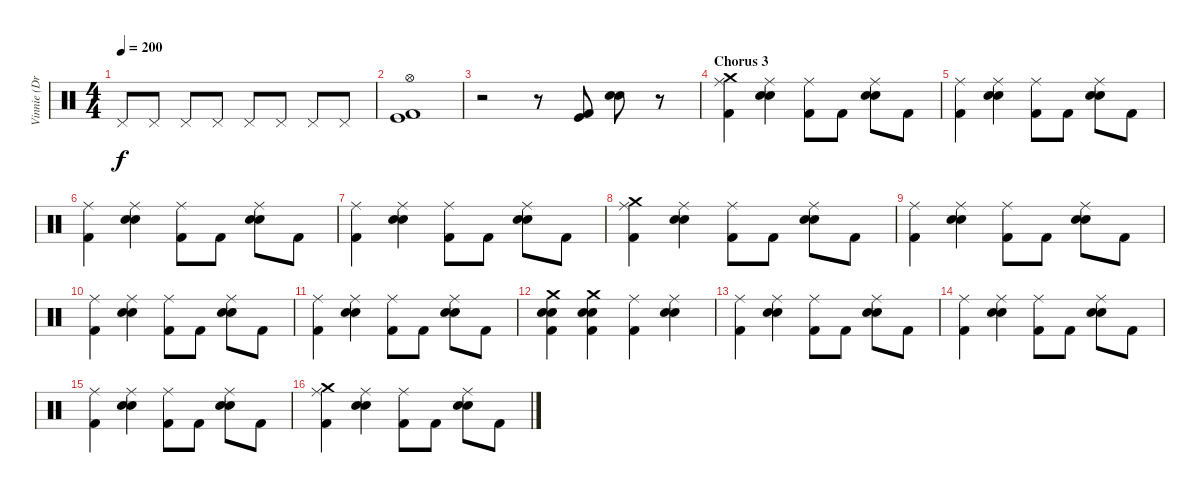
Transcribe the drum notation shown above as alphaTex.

\track ("Vinnie (Drums)" "Vinnie (Dr") {instrument percussion}
\staff {score}
\articulation defaults
\ts (4 4)
\tempo 200
\clef neutral
\ks c "Pedal Hi-Hat (hit)".8{dy f} "Pedal Hi-Hat (hit)".8 "Pedal Hi-Hat (hit)".8 "Pedal Hi-Hat (hit)".8 "Pedal Hi-Hat (hit)".8 "Pedal Hi-Hat (hit)".8 "Pedal Hi-Hat (hit)".8 "Pedal Hi-Hat (hit)".8
|
("Hi-Hat (open)" "Kick (hit) 2" "Kick (hit)").1 |
r.2 r.8 ("Kick (hit) 2" "Kick (hit)").8 ("Electric Snare (hit)" "Snare (hit) 2").8 r.8 |
\section ("" "Chorus 3")
("Kick (hit) 2" "Ride (middle)" "Crash medium (hit)").4 ("Snare (hit) 2" "Electric Snare (hit)" "Ride (middle)").4 ("Kick (hit) 2" "Ride (middle)").8 "Kick (hit) 2".8 ("Snare (hit) 2" "Electric Snare (hit)" "Ride (middle)").8 "Kick (hit) 2".8 |
("Kick (hit) 2" "Ride (middle)").4 ("Snare (hit) 2" "Electric Snare (hit)" "Ride (middle)").4 ("Kick (hit) 2" "Ride (middle)").8 "Kick (hit) 2".8 ("Snare (hit) 2" "Electric Snare (hit)" "Ride (middle)").8 "Kick (hit) 2".8 |
("Kick (hit) 2" "Ride (middle)").4 ("Snare (hit) 2" "Electric Snare (hit)" "Ride (middle)").4 ("Kick (hit) 2" "Ride (middle)").8 "Kick (hit) 2".8 ("Snare (hit) 2" "Electric Snare (hit)" "Ride (middle)").8 "Kick (hit) 2".8 |
("Kick (hit) 2" "Ride (middle)").4 ("Snare (hit) 2" "Electric Snare (hit)" "Ride (middle)").4 ("Kick (hit) 2" "Ride (middle)").8 "Kick (hit) 2".8 ("Snare (hit) 2" "Electric Snare (hit)" "Ride (middle)").8 "Kick (hit) 2".8 |
("Kick (hit) 2" "Ride (middle)" "Crash medium (hit)").4 ("Snare (hit) 2" "Electric Snare (hit)" "Ride (middle)").4 ("Kick (hit) 2" "Ride (middle)").8 "Kick (hit) 2".8 ("Snare (hit) 2" "Electric Snare (hit)" "Ride (middle)").8 "Kick (hit) 2".8 |
("Kick (hit) 2" "Ride (middle)").4 ("Snare (hit) 2" "Electric Snare (hit)" "Ride (middle)").4 ("Kick (hit) 2" "Ride (middle)").8 "Kick (hit) 2".8 ("Snare (hit) 2" "Electric Snare (hit)" "Ride (middle)").8 "Kick (hit) 2".8 |
("Kick (hit) 2" "Ride (middle)").4 ("Snare (hit) 2" "Electric Snare (hit)" "Ride (middle)").4 ("Kick (hit) 2" "Ride (middle)").8 "Kick (hit) 2".8 ("Snare (hit) 2" "Electric Snare (hit)" "Ride (middle)").8 "Kick (hit) 2".8 |
("Kick (hit) 2" "Ride (middle)").4 ("Snare (hit) 2" "Electric Snare (hit)" "Ride (middle)").4 ("Kick (hit) 2" "Ride (middle)").8 "Kick (hit) 2".8 ("Snare (hit) 2" "Electric Snare (hit)" "Ride (middle)").8 "Kick (hit) 2".8 |
("Kick (hit) 2" "Electric Snare (hit)" "Snare (hit) 2" "Crash medium (hit)").4 ("Snare (hit) 2" "Electric Snare (hit)" "Kick (hit) 2" "Crash medium (hit)").4 ("Kick (hit) 2" "Ride (middle)").4 ("Snare (hit) 2" "Electric Snare (hit)" "Ride (middle)").4 |
("Kick (hit) 2" "Ride (middle)").4 ("Snare (hit) 2" "Electric Snare (hit)" "Ride (middle)").4 ("Kick (hit) 2" "Ride (middle)").8 "Kick (hit) 2".8 ("Snare (hit) 2" "Electric Snare (hit)" "Ride (middle)").8 "Kick (hit) 2".8 |
("Kick (hit) 2" "Ride (middle)").4 ("Snare (hit) 2" "Electric Snare (hit)" "Ride (middle)").4 ("Kick (hit) 2" "Ride (middle)").8 "Kick (hit) 2".8 ("Snare (hit) 2" "Electric Snare (hit)" "Ride (middle)").8 "Kick (hit) 2".8 |
("Kick (hit) 2" "Ride (middle)").4 ("Snare (hit) 2" "Electric Snare (hit)" "Ride (middle)").4 ("Kick (hit) 2" "Ride (middle)").8 "Kick (hit) 2".8 ("Snare (hit) 2" "Electric Snare (hit)" "Ride (middle)").8 "Kick (hit) 2".8 |
("Kick (hit) 2" "Ride (middle)" "Crash medium (hit)").4 ("Snare (hit) 2" "Electric Snare (hit)" "Ride (middle)").4 ("Kick (hit) 2" "Ride (middle)").8 "Kick (hit) 2".8 ("Snare (hit) 2" "Electric Snare (hit)" "Ride (middle)").8 "Kick (hit) 2".8
